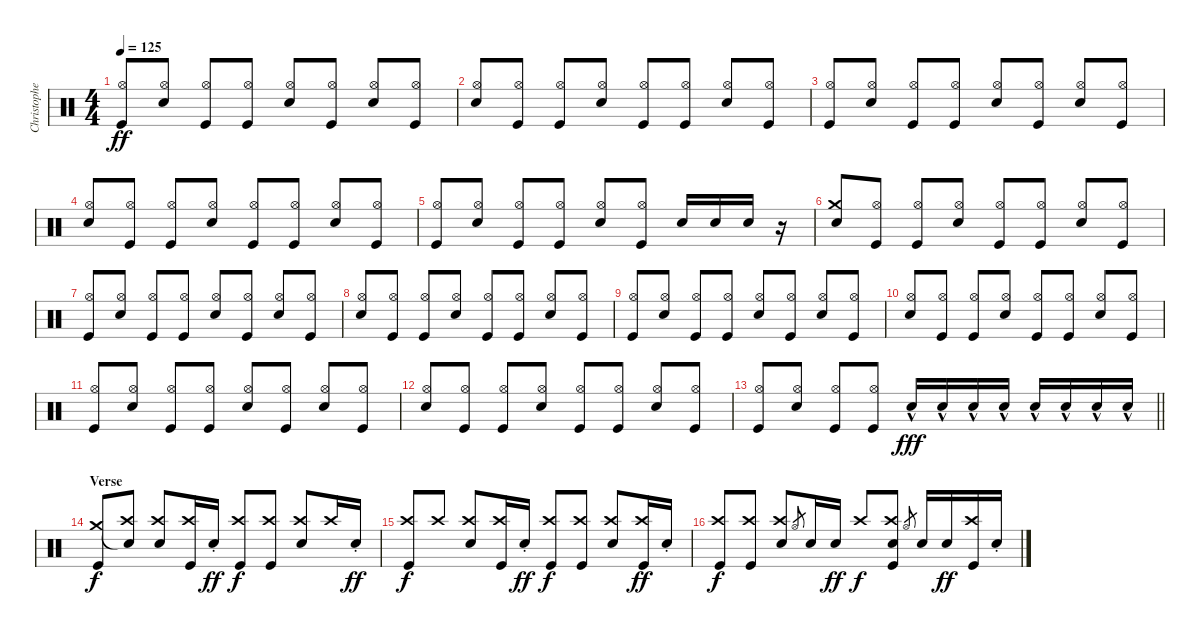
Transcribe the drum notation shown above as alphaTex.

\track ("Christopher - Drums" "Christophe") {instrument percussion}
\staff {score}
\articulation defaults
\ts (4 4)
\tempo 125
\clef neutral
\ks c
("Hi-Hat (open)" "Kick (hit)").8{dy ff beam Up} ("Hi-Hat (open)" "Electric Snare (hit)").8{beam Up} ("Hi-Hat (open)" "Kick (hit)").8{beam Up} ("Hi-Hat (open)" "Kick (hit)").8{beam Up} ("Hi-Hat (open)" "Electric Snare (hit)").8{beam Up} ("Hi-Hat (open)" "Kick (hit)").8{beam Up} ("Hi-Hat (open)" "Electric Snare (hit)").8{beam Up} ("Hi-Hat (open)" "Kick (hit)").8{beam Up} |
("Hi-Hat (open)" "Electric Snare (hit)").8{beam Up} ("Hi-Hat (open)" "Kick (hit)").8{beam Up} ("Hi-Hat (open)" "Kick (hit)").8{beam Up} ("Hi-Hat (open)" "Electric Snare (hit)").8{beam Up} ("Hi-Hat (open)" "Kick (hit)").8{beam Up} ("Hi-Hat (open)" "Kick (hit)").8{beam Up} ("Hi-Hat (open)" "Electric Snare (hit)").8{beam Up} ("Hi-Hat (open)" "Kick (hit)").8{beam Up} |
("Hi-Hat (open)" "Kick (hit)").8{beam Up} ("Hi-Hat (open)" "Electric Snare (hit)").8{beam Up} ("Hi-Hat (open)" "Kick (hit)").8{beam Up} ("Hi-Hat (open)" "Kick (hit)").8{beam Up} ("Hi-Hat (open)" "Electric Snare (hit)").8{beam Up} ("Hi-Hat (open)" "Kick (hit)").8{beam Up} ("Hi-Hat (open)" "Electric Snare (hit)").8{beam Up} ("Hi-Hat (open)" "Kick (hit)").8{beam Up} |
("Hi-Hat (open)" "Electric Snare (hit)").8{beam Up} ("Hi-Hat (open)" "Kick (hit)").8{beam Up} ("Hi-Hat (open)" "Kick (hit)").8{beam Up} ("Hi-Hat (open)" "Electric Snare (hit)").8{beam Up} ("Hi-Hat (open)" "Kick (hit)").8{beam Up} ("Hi-Hat (open)" "Kick (hit)").8{beam Up} ("Hi-Hat (open)" "Electric Snare (hit)").8{beam Up} ("Hi-Hat (open)" "Kick (hit)").8{beam Up} |
("Hi-Hat (open)" "Kick (hit)").8{beam Up} ("Hi-Hat (open)" "Electric Snare (hit)").8{beam Up} ("Hi-Hat (open)" "Kick (hit)").8{beam Up} ("Hi-Hat (open)" "Kick (hit)").8{beam Up} ("Hi-Hat (open)" "Electric Snare (hit)").8{beam Up} ("Hi-Hat (open)" "Kick (hit)").8{beam Up} "Electric Snare (hit)".16{beam Up} "Electric Snare (hit)".16{beam Up} "Electric Snare (hit)".16{beam Up} r.16 |
("Crash medium (hit)" "Electric Snare (hit)").8{beam Up} ("Hi-Hat (open)" "Kick (hit)").8{beam Up} ("Hi-Hat (open)" "Kick (hit)").8{beam Up} ("Hi-Hat (open)" "Electric Snare (hit)").8{beam Up} ("Hi-Hat (open)" "Kick (hit)").8{beam Up} ("Hi-Hat (open)" "Kick (hit)").8{beam Up} ("Hi-Hat (open)" "Electric Snare (hit)").8{beam Up} ("Hi-Hat (open)" "Kick (hit)").8{beam Up} |
("Hi-Hat (open)" "Kick (hit)").8{beam Up} ("Hi-Hat (open)" "Electric Snare (hit)").8{beam Up} ("Hi-Hat (open)" "Kick (hit)").8{beam Up} ("Hi-Hat (open)" "Kick (hit)").8{beam Up} ("Hi-Hat (open)" "Electric Snare (hit)").8{beam Up} ("Hi-Hat (open)" "Kick (hit)").8{beam Up} ("Hi-Hat (open)" "Electric Snare (hit)").8{beam Up} ("Hi-Hat (open)" "Kick (hit)").8{beam Up} |
("Hi-Hat (open)" "Electric Snare (hit)").8{beam Up} ("Hi-Hat (open)" "Kick (hit)").8{beam Up} ("Hi-Hat (open)" "Kick (hit)").8{beam Up} ("Hi-Hat (open)" "Electric Snare (hit)").8{beam Up} ("Hi-Hat (open)" "Kick (hit)").8{beam Up} ("Hi-Hat (open)" "Kick (hit)").8{beam Up} ("Hi-Hat (open)" "Electric Snare (hit)").8{beam Up} ("Hi-Hat (open)" "Kick (hit)").8{beam Up} |
("Hi-Hat (open)" "Kick (hit)").8{beam Up} ("Hi-Hat (open)" "Electric Snare (hit)").8{beam Up} ("Hi-Hat (open)" "Kick (hit)").8{beam Up} ("Hi-Hat (open)" "Kick (hit)").8{beam Up} ("Hi-Hat (open)" "Electric Snare (hit)").8{beam Up} ("Hi-Hat (open)" "Kick (hit)").8{beam Up} ("Hi-Hat (open)" "Electric Snare (hit)").8{beam Up} ("Hi-Hat (open)" "Kick (hit)").8{beam Up} |
("Hi-Hat (open)" "Electric Snare (hit)").8{beam Up} ("Hi-Hat (open)" "Kick (hit)").8{beam Up} ("Hi-Hat (open)" "Kick (hit)").8{beam Up} ("Hi-Hat (open)" "Electric Snare (hit)").8{beam Up} ("Hi-Hat (open)" "Kick (hit)").8{beam Up} ("Hi-Hat (open)" "Kick (hit)").8{beam Up} ("Hi-Hat (open)" "Electric Snare (hit)").8{beam Up} ("Hi-Hat (open)" "Kick (hit)").8{beam Up} |
("Hi-Hat (open)" "Kick (hit)").8{beam Up} ("Hi-Hat (open)" "Electric Snare (hit)").8{beam Up} ("Hi-Hat (open)" "Kick (hit)").8{beam Up} ("Hi-Hat (open)" "Kick (hit)").8{beam Up} ("Hi-Hat (open)" "Electric Snare (hit)").8{beam Up} ("Hi-Hat (open)" "Kick (hit)").8{beam Up} ("Hi-Hat (open)" "Electric Snare (hit)").8{beam Up} ("Hi-Hat (open)" "Kick (hit)").8{beam Up} |
("Hi-Hat (open)" "Electric Snare (hit)").8{beam Up} ("Hi-Hat (open)" "Kick (hit)").8{beam Up} ("Hi-Hat (open)" "Kick (hit)").8{beam Up} ("Hi-Hat (open)" "Electric Snare (hit)").8{beam Up} ("Hi-Hat (open)" "Kick (hit)").8{beam Up} ("Hi-Hat (open)" "Kick (hit)").8{beam Up} ("Hi-Hat (open)" "Electric Snare (hit)").8{beam Up} ("Hi-Hat (open)" "Kick (hit)").8{beam Up} |
\barLineRight lightlight
("Hi-Hat (open)" "Kick (hit)").8{beam Up} ("Hi-Hat (open)" "Electric Snare (hit)").8{beam Up} ("Hi-Hat (open)" "Kick (hit)").8{beam Up} ("Hi-Hat (open)" "Kick (hit)").8{beam Up} "Electric Snare (hit)"{hac}.16{dy fff beam Up} "Electric Snare (hit)"{hac}.16{beam Up} "Electric Snare (hit)"{hac}.16{beam Up} "Electric Snare (hit)"{hac}.16{beam Up} "Electric Snare (hit)"{hac}.16{beam Up} "Electric Snare (hit)"{hac}.16{beam Up} "Electric Snare (hit)"{hac}.16{beam Up} "Electric Snare (hit)"{hac}.16{beam Up} |
\section ("" "Verse")
("Crash medium (hit)" "Kick (hit)").8{dy f beam Up} ("Snare (hit)"{t} "Crash high (hit)").8{beam Up} ("Crash high (hit)" "Electric Snare (hit)").8{beam Up} ("Crash high (hit)" "Kick (hit)").16{beam Up} "Electric Snare (hit)"{st}.16{dy ff beam Up} ("Crash high (hit)" "Kick (hit)").8{dy f beam Up} ("Crash high (hit)" "Kick (hit)").8{beam Up} ("Crash high (hit)" "Electric Snare (hit)").8{beam Up} "Crash high (hit)".16{beam Up} "Electric Snare (hit)"{st}.16{dy ff beam Up} |
("Crash high (hit)" "Kick (hit)").8{dy f beam Up} "Crash high (hit)".8{beam Up} ("Crash high (hit)" "Electric Snare (hit)").8{beam Up} ("Crash high (hit)" "Kick (hit)").16{beam Up} "Electric Snare (hit)"{st}.16{dy ff beam Up} ("Crash high (hit)" "Kick (hit)").8{dy f beam Up} ("Crash high (hit)" "Kick (hit)").8{beam Up} ("Crash high (hit)" "Electric Snare (hit)").8{beam Up} ("Crash high (hit)" "Kick (hit)").16{dy ff beam Up} "Electric Snare (hit)"{st}.16{beam Up} |
("Crash high (hit)" "Kick (hit)").8{dy f beam Up} ("Crash high (hit)" "Kick (hit)").8{beam Up} ("Crash high (hit)" "Electric Snare (hit)").8{beam Up} "Hi-Hat (open)".8{gr} "Electric Snare (hit)".16{beam Up} "Electric Snare (hit)".16{dy ff beam Up} "Crash high (hit)".8{dy f beam Up} ("Crash high (hit)" "Electric Snare (hit)" "Kick (hit)").8{beam Up} "Hi-Hat (open)".8{gr} "Electric Snare (hit)".16{beam Up} "Electric Snare (hit)".16{dy ff beam Up} ("Crash high (hit)" "Kick (hit)").16{beam Up} "Electric Snare (hit)"{st}.16{beam Up}
